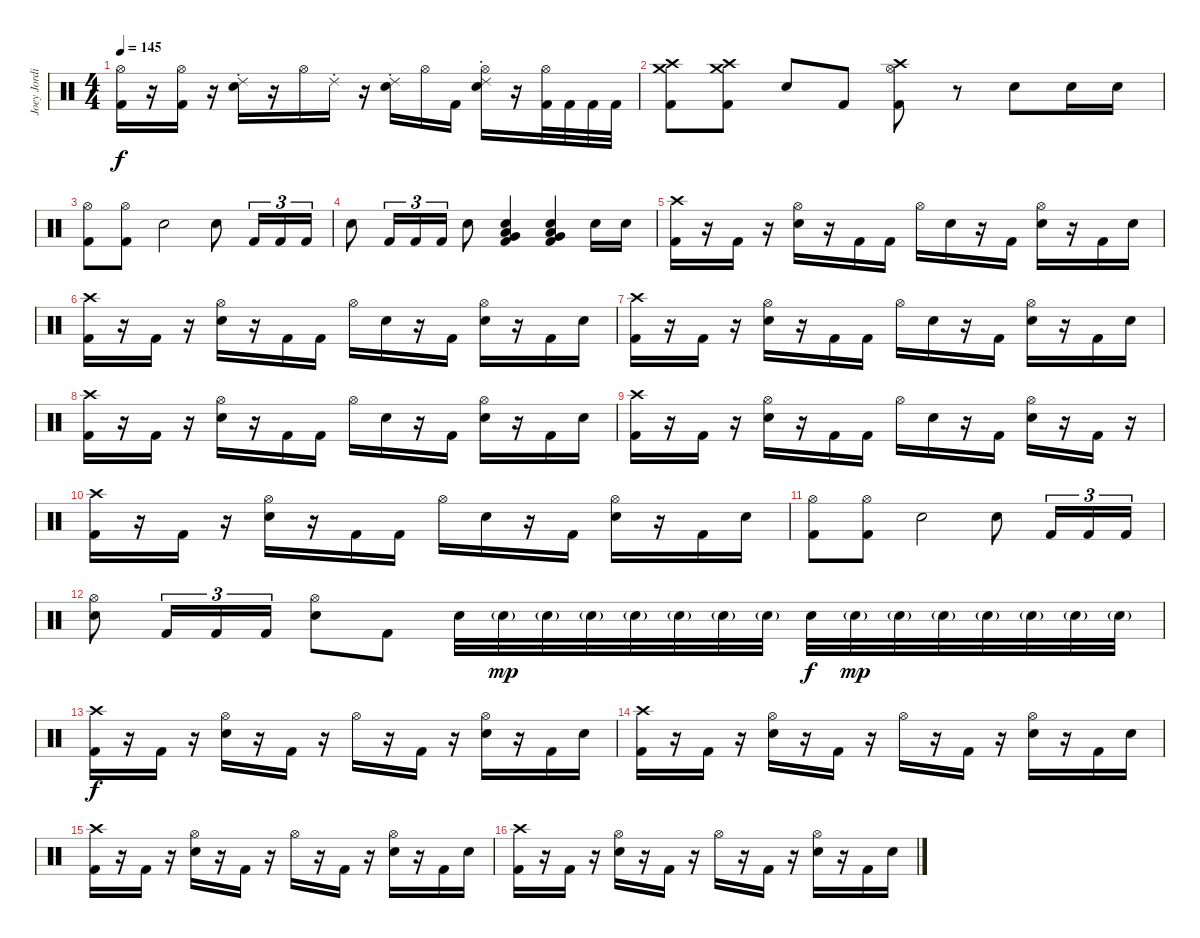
\track ("Joey Jordison" "Joey Jordi") {instrument percussion}
\staff {score}
\articulation defaults
\ts (4 4)
\tempo 145
\clef neutral
\ks c
("Hi-Hat (open)" "Kick (hit) 2").16{dy f} r.16 ("Hi-Hat (open)" "Kick (hit) 2").16 r.16 ("Ride (choke) 2" "Electric Snare (hit)").16 r.16 "Hi-Hat (open)".16 "Ride (choke) 2".16 r.16 ("Ride (choke) 2" "Electric Snare (hit)").16 "Hi-Hat (open)".16 "Kick (hit) 2".16 ("Ride (choke) 2" "Hi-Hat (open)" "Electric Snare (hit)").16 r.16 ("Hi-Hat (open)" "Kick (hit) 2").32 "Kick (hit) 2".32 "Kick (hit) 2".32 "Kick (hit) 2".32 |
("Crash high (hit)" "Crash medium (hit)" "Kick (hit) 2").8 ("Crash high (hit)" "Crash medium (hit)" "Kick (hit) 2").8 "Electric Snare (hit)".8 "Kick (hit) 2".8 ("Crash high (hit)" "Hi-Hat (open)" "Kick (hit) 2").8 r.8 "Electric Snare (hit)".8 "Electric Snare (hit)".16 "Electric Snare (hit)".16 |
("Hi-Hat (open)" "Kick (hit) 2").8 ("Hi-Hat (open)" "Kick (hit) 2").8 "Electric Snare (hit)".2 "Electric Snare (hit)".8 "Kick (hit) 2".16{tu (3 2)} "Kick (hit) 2".16{tu (3 2)} "Kick (hit) 2".16{tu (3 2)} |
"Electric Snare (hit)".8 "Kick (hit) 2".16{tu (3 2)} "Kick (hit) 2".16{tu (3 2)} "Kick (hit) 2".16{tu (3 2)} "Electric Snare (hit)".8 ("Electric Snare (hit)" "Very Low Tom (hit)" "Low Floor Tom (hit)" "Kick (hit) 2").4 ("Electric Snare (hit)" "Very Low Tom (hit)" "Low Floor Tom (hit)" "Kick (hit) 2").4 "Electric Snare (hit)".16 "Electric Snare (hit)".16 |
("Crash high (hit)" "Kick (hit) 2").16 r.16 "Kick (hit) 2".16 r.16 ("Hi-Hat (open)" "Electric Snare (hit)").16 r.16 "Kick (hit) 2".16 "Kick (hit) 2".16 "Hi-Hat (open)".16 "Electric Snare (hit)".16 r.16 "Kick (hit) 2".16 ("Hi-Hat (open)" "Electric Snare (hit)").16 r.16 "Kick (hit) 2".16 "Electric Snare (hit)".16 |
("Crash high (hit)" "Kick (hit) 2").16 r.16 "Kick (hit) 2".16 r.16 ("Hi-Hat (open)" "Electric Snare (hit)").16 r.16 "Kick (hit) 2".16 "Kick (hit) 2".16 "Hi-Hat (open)".16 "Electric Snare (hit)".16 r.16 "Kick (hit) 2".16 ("Hi-Hat (open)" "Electric Snare (hit)").16 r.16 "Kick (hit) 2".16 "Electric Snare (hit)".16 |
("Crash high (hit)" "Kick (hit) 2").16 r.16 "Kick (hit) 2".16 r.16 ("Hi-Hat (open)" "Electric Snare (hit)").16 r.16 "Kick (hit) 2".16 "Kick (hit) 2".16 "Hi-Hat (open)".16 "Electric Snare (hit)".16 r.16 "Kick (hit) 2".16 ("Hi-Hat (open)" "Electric Snare (hit)").16 r.16 "Kick (hit) 2".16 "Electric Snare (hit)".16 |
("Crash high (hit)" "Kick (hit) 2").16 r.16 "Kick (hit) 2".16 r.16 ("Hi-Hat (open)" "Electric Snare (hit)").16 r.16 "Kick (hit) 2".16 "Kick (hit) 2".16 "Hi-Hat (open)".16 "Electric Snare (hit)".16 r.16 "Kick (hit) 2".16 ("Hi-Hat (open)" "Electric Snare (hit)").16 r.16 "Kick (hit) 2".16 "Electric Snare (hit)".16 |
("Crash high (hit)" "Kick (hit) 2").16 r.16 "Kick (hit) 2".16 r.16 ("Hi-Hat (open)" "Electric Snare (hit)").16 r.16 "Kick (hit) 2".16 "Kick (hit) 2".16 "Hi-Hat (open)".16 "Electric Snare (hit)".16 r.16 "Kick (hit) 2".16 ("Hi-Hat (open)" "Electric Snare (hit)").16 r.16 "Kick (hit) 2".16 r.16 |
("Crash high (hit)" "Kick (hit) 2").16 r.16 "Kick (hit) 2".16 r.16 ("Hi-Hat (open)" "Electric Snare (hit)").16 r.16 "Kick (hit) 2".16 "Kick (hit) 2".16 "Hi-Hat (open)".16 "Electric Snare (hit)".16 r.16 "Kick (hit) 2".16 ("Hi-Hat (open)" "Electric Snare (hit)").16 r.16 "Kick (hit) 2".16 "Electric Snare (hit)".16 |
("Hi-Hat (open)" "Kick (hit) 2").8 ("Hi-Hat (open)" "Kick (hit) 2").8 "Electric Snare (hit)".2 "Electric Snare (hit)".8 "Kick (hit) 2".16{tu (3 2)} "Kick (hit) 2".16{tu (3 2)} "Kick (hit) 2".16{tu (3 2)} |
("Hi-Hat (open)" "Electric Snare (hit)").8 "Kick (hit) 2".16{tu (3 2)} "Kick (hit) 2".16{tu (3 2)} "Kick (hit) 2".16{tu (3 2)} ("Hi-Hat (open)" "Electric Snare (hit)").8 "Kick (hit) 2".8 "Electric Snare (hit)".32 "Electric Snare (hit)"{g}.32{dy mp} "Electric Snare (hit)"{g}.32 "Electric Snare (hit)"{g}.32 "Electric Snare (hit)"{g}.32 "Electric Snare (hit)"{g}.32 "Electric Snare (hit)"{g}.32 "Electric Snare (hit)"{g}.32 "Electric Snare (hit)".32{dy f} "Electric Snare (hit)"{g}.32{dy mp} "Electric Snare (hit)"{g}.32 "Electric Snare (hit)"{g}.32 "Electric Snare (hit)"{g}.32 "Electric Snare (hit)"{g}.32 "Electric Snare (hit)"{g}.32 "Electric Snare (hit)"{g}.32 |
("Crash high (hit)" "Kick (hit) 2").16{dy f} r.16 "Kick (hit) 2".16 r.16 ("Hi-Hat (open)" "Electric Snare (hit)").16 r.16 "Kick (hit) 2".16 r.16 "Hi-Hat (open)".16 r.16 "Kick (hit) 2".16 r.16 ("Hi-Hat (open)" "Electric Snare (hit)").16 r.16 "Kick (hit) 2".16 "Electric Snare (hit)".16 |
("Crash high (hit)" "Kick (hit) 2").16 r.16 "Kick (hit) 2".16 r.16 ("Hi-Hat (open)" "Electric Snare (hit)").16 r.16 "Kick (hit) 2".16 r.16 "Hi-Hat (open)".16 r.16 "Kick (hit) 2".16 r.16 ("Hi-Hat (open)" "Electric Snare (hit)").16 r.16 "Kick (hit) 2".16 "Electric Snare (hit)".16 |
("Crash high (hit)" "Kick (hit) 2").16 r.16 "Kick (hit) 2".16 r.16 ("Hi-Hat (open)" "Electric Snare (hit)").16 r.16 "Kick (hit) 2".16 r.16 "Hi-Hat (open)".16 r.16 "Kick (hit) 2".16 r.16 ("Hi-Hat (open)" "Electric Snare (hit)").16 r.16 "Kick (hit) 2".16 "Electric Snare (hit)".16 |
("Crash high (hit)" "Kick (hit) 2").16 r.16 "Kick (hit) 2".16 r.16 ("Hi-Hat (open)" "Electric Snare (hit)").16 r.16 "Kick (hit) 2".16 r.16 "Hi-Hat (open)".16 r.16 "Kick (hit) 2".16 r.16 ("Hi-Hat (open)" "Electric Snare (hit)").16 r.16 "Kick (hit) 2".16 "Electric Snare (hit)".16
